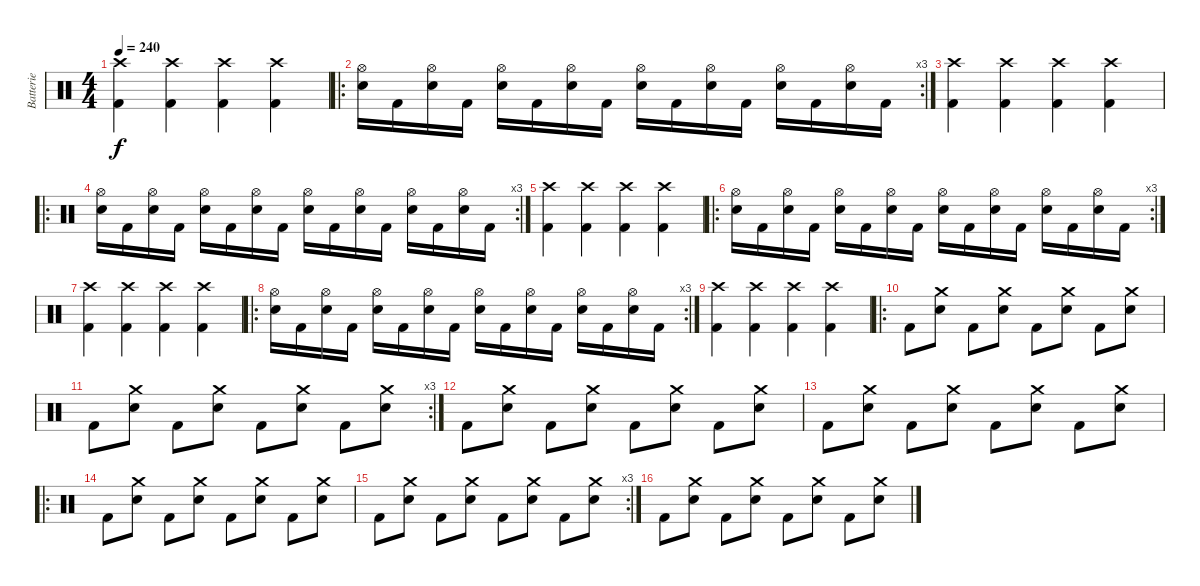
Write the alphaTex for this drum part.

\track ("Batterie" "Batterie") {instrument percussion}
\staff {score}
\articulation defaults
\ts (4 4)
\tempo 240
\clef neutral
\ks c
("Crash high (hit)" "Kick (hit) 2").4{dy f} ("Crash high (hit)" "Kick (hit) 2").4 ("Crash high (hit)" "Kick (hit) 2").4 ("Crash high (hit)" "Kick (hit) 2").4 |
\ro
\rc 3
("Hi-Hat (open)" "Snare (hit) 2").16 "Kick (hit) 2".16 ("Hi-Hat (open)" "Snare (hit) 2").16 "Kick (hit) 2".16 ("Hi-Hat (open)" "Snare (hit) 2").16 "Kick (hit) 2".16 ("Hi-Hat (open)" "Snare (hit) 2").16 "Kick (hit) 2".16 ("Hi-Hat (open)" "Snare (hit) 2").16 "Kick (hit) 2".16 ("Hi-Hat (open)" "Snare (hit) 2").16 "Kick (hit) 2".16 ("Hi-Hat (open)" "Snare (hit) 2").16 "Kick (hit) 2".16 ("Hi-Hat (open)" "Snare (hit) 2").16 "Kick (hit) 2".16 |
("Crash high (hit)" "Kick (hit) 2").4 ("Crash high (hit)" "Kick (hit) 2").4 ("Crash high (hit)" "Kick (hit) 2").4 ("Crash high (hit)" "Kick (hit) 2").4 |
\ro
\rc 3
("Hi-Hat (open)" "Snare (hit) 2").16 "Kick (hit) 2".16 ("Hi-Hat (open)" "Snare (hit) 2").16 "Kick (hit) 2".16 ("Hi-Hat (open)" "Snare (hit) 2").16 "Kick (hit) 2".16 ("Hi-Hat (open)" "Snare (hit) 2").16 "Kick (hit) 2".16 ("Hi-Hat (open)" "Snare (hit) 2").16 "Kick (hit) 2".16 ("Hi-Hat (open)" "Snare (hit) 2").16 "Kick (hit) 2".16 ("Hi-Hat (open)" "Snare (hit) 2").16 "Kick (hit) 2".16 ("Hi-Hat (open)" "Snare (hit) 2").16 "Kick (hit) 2".16 |
("Crash high (hit)" "Kick (hit) 2").4 ("Crash high (hit)" "Kick (hit) 2").4 ("Crash high (hit)" "Kick (hit) 2").4 ("Crash high (hit)" "Kick (hit) 2").4 |
\ro
\rc 3
("Hi-Hat (open)" "Snare (hit) 2").16 "Kick (hit) 2".16 ("Hi-Hat (open)" "Snare (hit) 2").16 "Kick (hit) 2".16 ("Hi-Hat (open)" "Snare (hit) 2").16 "Kick (hit) 2".16 ("Hi-Hat (open)" "Snare (hit) 2").16 "Kick (hit) 2".16 ("Hi-Hat (open)" "Snare (hit) 2").16 "Kick (hit) 2".16 ("Hi-Hat (open)" "Snare (hit) 2").16 "Kick (hit) 2".16 ("Hi-Hat (open)" "Snare (hit) 2").16 "Kick (hit) 2".16 ("Hi-Hat (open)" "Snare (hit) 2").16 "Kick (hit) 2".16 |
("Crash high (hit)" "Kick (hit) 2").4 ("Crash high (hit)" "Kick (hit) 2").4 ("Crash high (hit)" "Kick (hit) 2").4 ("Crash high (hit)" "Kick (hit) 2").4 |
\ro
\rc 3
("Hi-Hat (open)" "Snare (hit) 2").16 "Kick (hit) 2".16 ("Hi-Hat (open)" "Snare (hit) 2").16 "Kick (hit) 2".16 ("Hi-Hat (open)" "Snare (hit) 2").16 "Kick (hit) 2".16 ("Hi-Hat (open)" "Snare (hit) 2").16 "Kick (hit) 2".16 ("Hi-Hat (open)" "Snare (hit) 2").16 "Kick (hit) 2".16 ("Hi-Hat (open)" "Snare (hit) 2").16 "Kick (hit) 2".16 ("Hi-Hat (open)" "Snare (hit) 2").16 "Kick (hit) 2".16 ("Hi-Hat (open)" "Snare (hit) 2").16 "Kick (hit) 2".16 |
("Crash high (hit)" "Kick (hit) 2").4 ("Crash high (hit)" "Kick (hit) 2").4 ("Crash high (hit)" "Kick (hit) 2").4 ("Crash high (hit)" "Kick (hit) 2").4 |
\ro "Kick (hit) 2".8
("Crash medium (hit)" "Snare (hit) 2").8 "Kick (hit) 2".8 ("Crash medium (hit)" "Snare (hit) 2").8 "Kick (hit) 2".8 ("Crash medium (hit)" "Snare (hit) 2").8 "Kick (hit) 2".8 ("Crash medium (hit)" "Snare (hit) 2").8 |
\rc 3 "Kick (hit) 2".8
("Crash medium (hit)" "Snare (hit) 2").8 "Kick (hit) 2".8 ("Crash medium (hit)" "Snare (hit) 2").8 "Kick (hit) 2".8 ("Crash medium (hit)" "Snare (hit) 2").8 "Kick (hit) 2".8 ("Crash medium (hit)" "Snare (hit) 2").8 |
"Kick (hit) 2".8 ("Crash medium (hit)" "Snare (hit) 2").8 "Kick (hit) 2".8 ("Crash medium (hit)" "Snare (hit) 2").8 "Kick (hit) 2".8 ("Crash medium (hit)" "Snare (hit) 2").8 "Kick (hit) 2".8 ("Crash medium (hit)" "Snare (hit) 2").8 |
"Kick (hit) 2".8 ("Crash medium (hit)" "Snare (hit) 2").8 "Kick (hit) 2".8 ("Crash medium (hit)" "Snare (hit) 2").8 "Kick (hit) 2".8 ("Crash medium (hit)" "Snare (hit) 2").8 "Kick (hit) 2".8 ("Crash medium (hit)" "Snare (hit) 2").8 |
\ro "Kick (hit) 2".8
("Crash medium (hit)" "Snare (hit) 2").8 "Kick (hit) 2".8 ("Crash medium (hit)" "Snare (hit) 2").8 "Kick (hit) 2".8 ("Crash medium (hit)" "Snare (hit) 2").8 "Kick (hit) 2".8 ("Crash medium (hit)" "Snare (hit) 2").8 |
\rc 3 "Kick (hit) 2".8
("Crash medium (hit)" "Snare (hit) 2").8 "Kick (hit) 2".8 ("Crash medium (hit)" "Snare (hit) 2").8 "Kick (hit) 2".8 ("Crash medium (hit)" "Snare (hit) 2").8 "Kick (hit) 2".8 ("Crash medium (hit)" "Snare (hit) 2").8 |
"Kick (hit) 2".8 ("Crash medium (hit)" "Snare (hit) 2").8 "Kick (hit) 2".8 ("Crash medium (hit)" "Snare (hit) 2").8 "Kick (hit) 2".8 ("Crash medium (hit)" "Snare (hit) 2").8 "Kick (hit) 2".8 ("Crash medium (hit)" "Snare (hit) 2").8
